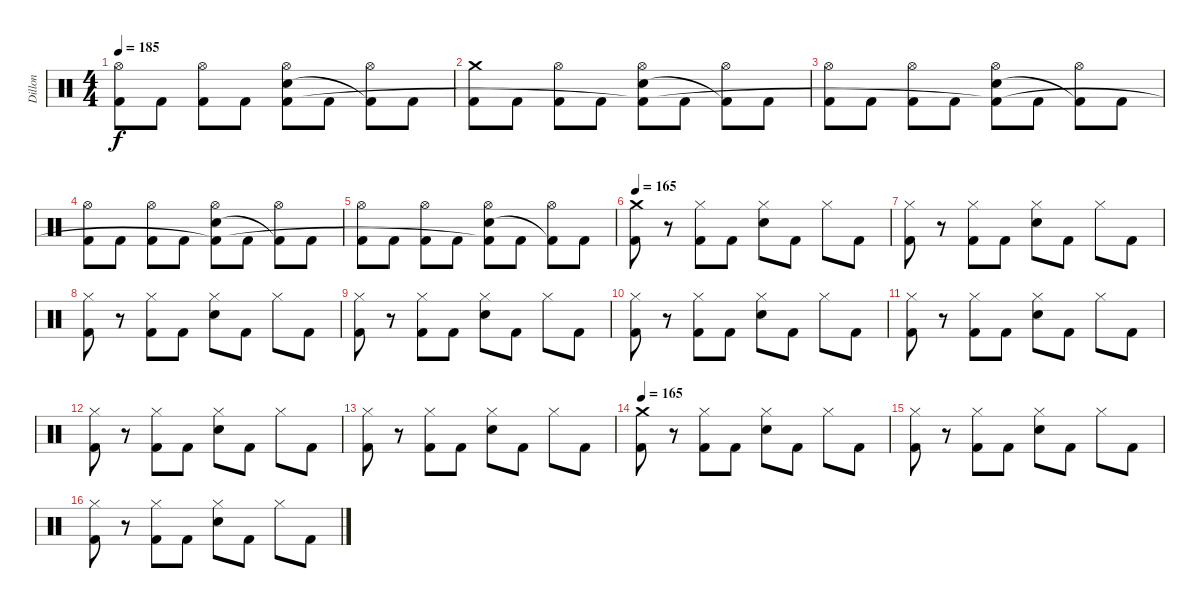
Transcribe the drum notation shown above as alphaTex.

\track ("Dillon" "Dillon") {instrument percussion}
\staff {score}
\articulation defaults
\ts (4 4)
\tempo 185
\clef neutral
\ks c
("Hi-Hat (open)" "Kick (hit) 2").8{dy f} "Kick (hit) 2".8 ("Hi-Hat (open)" "Kick (hit) 2").8 "Kick (hit) 2".8 ("Hi-Hat (open)" "Electric Snare (hit)" "Kick (hit) 2"{t}).8 "Kick (hit) 2".8 ("Hi-Hat (open)" "Kick (hit) 2"{t}).8 "Kick (hit) 2".8 |
("Crash medium (hit)" "Kick (hit) 2").8 "Kick (hit) 2".8 ("Hi-Hat (open)" "Kick (hit) 2").8 "Kick (hit) 2".8 ("Hi-Hat (open)" "Electric Snare (hit)" "Kick (hit) 2"{t}).8 "Kick (hit) 2".8 ("Hi-Hat (open)" "Kick (hit) 2"{t}).8 "Kick (hit) 2".8 |
("Hi-Hat (open)" "Kick (hit) 2").8 "Kick (hit) 2".8 ("Hi-Hat (open)" "Kick (hit) 2").8 "Kick (hit) 2".8 ("Hi-Hat (open)" "Electric Snare (hit)" "Kick (hit) 2"{t}).8 "Kick (hit) 2".8 ("Hi-Hat (open)" "Kick (hit) 2"{t}).8 "Kick (hit) 2".8 |
("Hi-Hat (open)" "Kick (hit) 2").8 "Kick (hit) 2".8 ("Hi-Hat (open)" "Kick (hit) 2").8 "Kick (hit) 2".8 ("Hi-Hat (open)" "Electric Snare (hit)" "Kick (hit) 2"{t}).8 "Kick (hit) 2".8 ("Hi-Hat (open)" "Kick (hit) 2"{t}).8 "Kick (hit) 2".8 |
("Hi-Hat (open)" "Kick (hit) 2").8 "Kick (hit) 2".8 ("Hi-Hat (open)" "Kick (hit) 2").8 "Kick (hit) 2".8 ("Hi-Hat (open)" "Electric Snare (hit)" "Kick (hit) 2"{t}).8 "Kick (hit) 2".8 ("Hi-Hat (open)" "Kick (hit) 2"{t}).8 "Kick (hit) 2".8 |
\tempo 165
("Crash medium (hit)" "Kick (hit) 2").8 r.8 ("Hi-Hat (closed)" "Kick (hit) 2").8 "Kick (hit) 2".8 ("Hi-Hat (closed)" "Electric Snare (hit)").8 "Kick (hit) 2".8 "Hi-Hat (closed)".8 "Kick (hit) 2".8 |
("Hi-Hat (closed)" "Kick (hit) 2").8 r.8 ("Hi-Hat (closed)" "Kick (hit) 2").8 "Kick (hit) 2".8 ("Hi-Hat (closed)" "Electric Snare (hit)").8 "Kick (hit) 2".8 "Hi-Hat (closed)".8 "Kick (hit) 2".8 |
("Hi-Hat (closed)" "Kick (hit) 2").8 r.8 ("Hi-Hat (closed)" "Kick (hit) 2").8 "Kick (hit) 2".8 ("Hi-Hat (closed)" "Electric Snare (hit)").8 "Kick (hit) 2".8 "Hi-Hat (closed)".8 "Kick (hit) 2".8 |
("Hi-Hat (closed)" "Kick (hit) 2").8 r.8 ("Hi-Hat (closed)" "Kick (hit) 2").8 "Kick (hit) 2".8 ("Hi-Hat (closed)" "Electric Snare (hit)").8 "Kick (hit) 2".8 "Hi-Hat (closed)".8 "Kick (hit) 2".8 |
("Hi-Hat (closed)" "Kick (hit) 2").8 r.8 ("Hi-Hat (closed)" "Kick (hit) 2").8 "Kick (hit) 2".8 ("Hi-Hat (closed)" "Electric Snare (hit)").8 "Kick (hit) 2".8 "Hi-Hat (closed)".8 "Kick (hit) 2".8 |
("Hi-Hat (closed)" "Kick (hit) 2").8 r.8 ("Hi-Hat (closed)" "Kick (hit) 2").8 "Kick (hit) 2".8 ("Hi-Hat (closed)" "Electric Snare (hit)").8 "Kick (hit) 2".8 "Hi-Hat (closed)".8 "Kick (hit) 2".8 |
("Hi-Hat (closed)" "Kick (hit) 2").8 r.8 ("Hi-Hat (closed)" "Kick (hit) 2").8 "Kick (hit) 2".8 ("Hi-Hat (closed)" "Electric Snare (hit)").8 "Kick (hit) 2".8 "Hi-Hat (closed)".8 "Kick (hit) 2".8 |
("Hi-Hat (closed)" "Kick (hit) 2").8 r.8 ("Hi-Hat (closed)" "Kick (hit) 2").8 "Kick (hit) 2".8 ("Hi-Hat (closed)" "Electric Snare (hit)").8 "Kick (hit) 2".8 "Hi-Hat (closed)".8 "Kick (hit) 2".8 |
\tempo 165
("Crash medium (hit)" "Kick (hit) 2").8 r.8 ("Hi-Hat (closed)" "Kick (hit) 2").8 "Kick (hit) 2".8 ("Hi-Hat (closed)" "Electric Snare (hit)").8 "Kick (hit) 2".8 "Hi-Hat (closed)".8 "Kick (hit) 2".8 |
("Hi-Hat (closed)" "Kick (hit) 2").8 r.8 ("Hi-Hat (closed)" "Kick (hit) 2").8 "Kick (hit) 2".8 ("Hi-Hat (closed)" "Electric Snare (hit)").8 "Kick (hit) 2".8 "Hi-Hat (closed)".8 "Kick (hit) 2".8 |
("Hi-Hat (closed)" "Kick (hit) 2").8 r.8 ("Hi-Hat (closed)" "Kick (hit) 2").8 "Kick (hit) 2".8 ("Hi-Hat (closed)" "Electric Snare (hit)").8 "Kick (hit) 2".8 "Hi-Hat (closed)".8 "Kick (hit) 2".8
